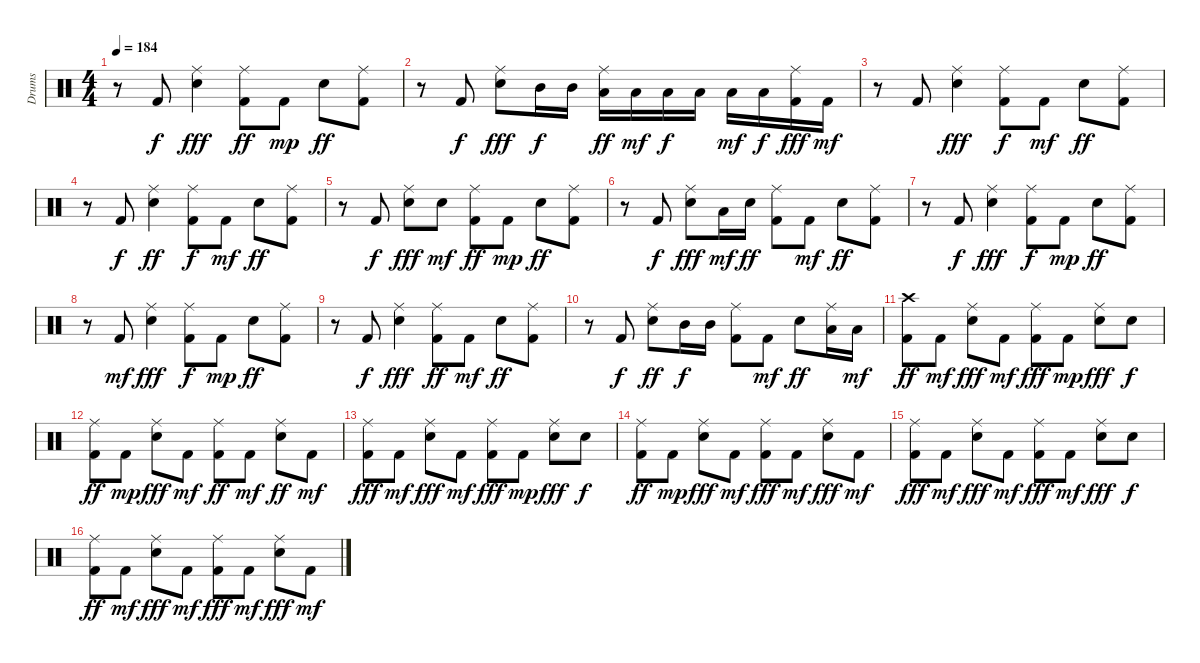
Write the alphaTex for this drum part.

\track ("Drums" "Drums") {instrument percussion}
\staff {score}
\articulation defaults
\ts (4 4)
\tempo 184
\clef neutral
\ks c
r.8{dy ff} "Kick (hit) 2".8{dy f} ("Snare (hit) 2" "Ride (middle)").4{dy fff} ("Kick (hit) 2" "Ride (middle)").8{dy ff} "Kick (hit) 2".8{dy mp} "Snare (hit) 2".8{dy ff} ("Kick (hit) 2" "Ride (middle)").8 |
r.8 "Kick (hit) 2".8{dy f} ("Snare (hit) 2" "Ride (middle)").8{dy fff} "Mid Tom (hit)".16{dy f} "Mid Tom (hit)".16 ("Low Tom (hit)" "Ride (middle)").16{dy ff} "Low Tom (hit)".16{dy mf} "Low Tom (hit)".16{dy f} "Low Tom (hit)".16 "Low Floor Tom (hit)".16{dy mf} "Low Floor Tom (hit)".16{dy f} ("Kick (hit) 2" "Ride (middle)").16{dy fff} "Kick (hit) 2".16{dy mf} |
r.8 "Kick (hit) 2".8 ("Snare (hit) 2" "Ride (middle)").4{dy fff} ("Kick (hit) 2" "Ride (middle)").8{dy f} "Kick (hit) 2".8{dy mf} "Snare (hit) 2".8{dy ff} ("Kick (hit) 2" "Ride (middle)").8 |
r.8 "Kick (hit) 2".8{dy f} ("Snare (hit) 2" "Ride (middle)").4{dy ff} ("Kick (hit) 2" "Ride (middle)").8{dy f} "Kick (hit) 2".8{dy mf} "Snare (hit) 2".8{dy ff} ("Kick (hit) 2" "Ride (middle)").8 |
r.8 "Kick (hit) 2".8{dy f} ("Snare (hit) 2" "Ride (middle)").8{dy fff} "Snare (hit) 2".8{dy mf} ("Kick (hit) 2" "Ride (middle)").8{dy ff} "Kick (hit) 2".8{dy mp} "Snare (hit) 2".8{dy ff} ("Kick (hit) 2" "Ride (middle)").8 |
r.8 "Kick (hit) 2".8{dy f} ("Snare (hit) 2" "Ride (middle)").8{dy fff} "Low Floor Tom (hit)".16{dy mf} "Snare (hit) 2".16{dy ff} ("Kick (hit) 2" "Ride (middle)").8 "Kick (hit) 2".8{dy mf} "Snare (hit) 2".8{dy ff} ("Kick (hit) 2" "Ride (middle)").8 |
r.8 "Kick (hit) 2".8{dy f} ("Snare (hit) 2" "Ride (middle)").4{dy fff} ("Kick (hit) 2" "Ride (middle)").8{dy f} "Kick (hit) 2".8{dy mp} "Snare (hit) 2".8{dy ff} ("Kick (hit) 2" "Ride (middle)").8 |
r.8 "Kick (hit) 2".8{dy mf} ("Snare (hit) 2" "Ride (middle)").4{dy fff} ("Kick (hit) 2" "Ride (middle)").8{dy f} "Kick (hit) 2".8{dy mp} "Snare (hit) 2".8{dy ff} ("Kick (hit) 2" "Ride (middle)").8 |
r.8 "Kick (hit) 2".8{dy f} ("Snare (hit) 2" "Ride (middle)").4{dy fff} ("Kick (hit) 2" "Ride (middle)").8{dy ff} "Kick (hit) 2".8{dy mf} "Snare (hit) 2".8{dy ff} ("Kick (hit) 2" "Ride (middle)").8 |
r.8 "Kick (hit) 2".8{dy f} ("Snare (hit) 2" "Ride (middle)").8{dy ff} "Mid Tom (hit)".16{dy f} "Mid Tom (hit)".16 ("Kick (hit) 2" "Ride (middle)").8 "Kick (hit) 2".8{dy mf} "Snare (hit) 2".8{dy ff} ("Low Tom (hit)" "Ride (middle)").16 "Low Tom (hit)".16{dy mf} |
("Kick (hit) 2" "Crash high (hit)").8{dy ff} "Kick (hit) 2".8{dy mf} ("Snare (hit) 2" "Ride (middle)").8{dy fff} "Kick (hit) 2".8{dy mf} ("Kick (hit) 2" "Ride (middle)").8{dy fff} "Kick (hit) 2".8{dy mp} ("Snare (hit) 2" "Ride (middle)").8{dy fff} "Snare (hit) 2".8{dy f} |
("Kick (hit) 2" "Ride (middle)").8{dy ff} "Kick (hit) 2".8{dy mp} ("Snare (hit) 2" "Ride (middle)").8{dy fff} "Kick (hit) 2".8{dy mf} ("Kick (hit) 2" "Ride (middle)").8{dy ff} "Kick (hit) 2".8{dy mf} ("Snare (hit) 2" "Ride (middle)").8{dy ff} "Kick (hit) 2".8{dy mf} |
("Kick (hit) 2" "Ride (middle)").8{dy fff} "Kick (hit) 2".8{dy mf} ("Snare (hit) 2" "Ride (middle)").8{dy fff} "Kick (hit) 2".8{dy mf} ("Kick (hit) 2" "Ride (middle)").8{dy fff} "Kick (hit) 2".8{dy mp} ("Snare (hit) 2" "Ride (middle)").8{dy fff} "Snare (hit) 2".8{dy f} |
("Kick (hit) 2" "Ride (middle)").8{dy ff} "Kick (hit) 2".8{dy mp} ("Snare (hit) 2" "Ride (middle)").8{dy fff} "Kick (hit) 2".8{dy mf} ("Kick (hit) 2" "Ride (middle)").8{dy fff} "Kick (hit) 2".8{dy mf} ("Snare (hit) 2" "Ride (middle)").8{dy fff} "Kick (hit) 2".8{dy mf} |
("Kick (hit) 2" "Ride (middle)").8{dy fff} "Kick (hit) 2".8{dy mf} ("Snare (hit) 2" "Ride (middle)").8{dy fff} "Kick (hit) 2".8{dy mf} ("Kick (hit) 2" "Ride (middle)").8{dy fff} "Kick (hit) 2".8{dy mf} ("Snare (hit) 2" "Ride (middle)").8{dy fff} "Snare (hit) 2".8{dy f} |
("Kick (hit) 2" "Ride (middle)").8{dy ff} "Kick (hit) 2".8{dy mf} ("Snare (hit) 2" "Ride (middle)").8{dy fff} "Kick (hit) 2".8{dy mf} ("Kick (hit) 2" "Ride (middle)").8{dy fff} "Kick (hit) 2".8{dy mf} ("Snare (hit) 2" "Ride (middle)").8{dy fff} "Kick (hit) 2".8{dy mf}
